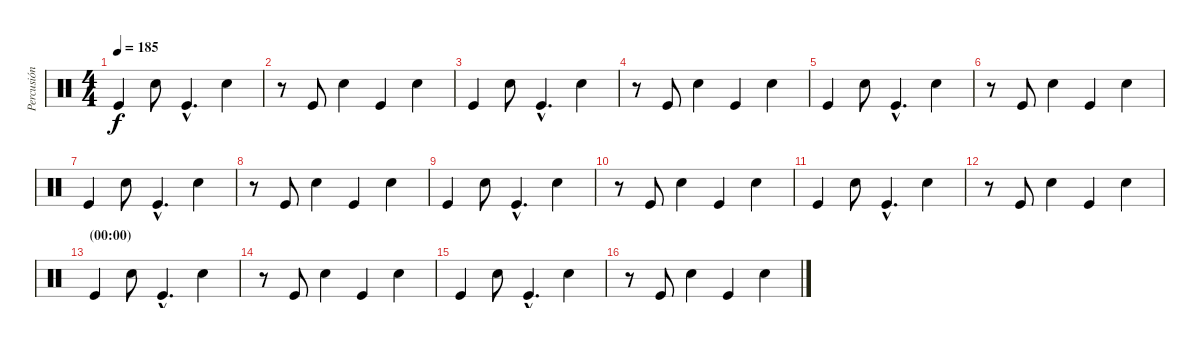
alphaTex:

\track ("Percusión" "Percusión") {instrument percussion}
\staff {score}
\articulation defaults
\ts (4 4)
\tempo 185
\clef neutral
\ks c "Kick (hit)".4{dy f} "Electric Snare (hit)".8 "Kick (hit)"{hac}.4{d} "Electric Snare (hit)".4
|
r.8 "Kick (hit)".8 "Electric Snare (hit)".4 "Kick (hit)".4 "Electric Snare (hit)".4 |
"Kick (hit)".4 "Electric Snare (hit)".8 "Kick (hit)"{hac}.4{d} "Electric Snare (hit)".4 |
r.8 "Kick (hit)".8 "Electric Snare (hit)".4 "Kick (hit)".4 "Electric Snare (hit)".4 |
"Kick (hit)".4 "Electric Snare (hit)".8 "Kick (hit)"{hac}.4{d} "Electric Snare (hit)".4 |
r.8 "Kick (hit)".8 "Electric Snare (hit)".4 "Kick (hit)".4 "Electric Snare (hit)".4 |
"Kick (hit)".4 "Electric Snare (hit)".8 "Kick (hit)"{hac}.4{d} "Electric Snare (hit)".4 |
r.8 "Kick (hit)".8 "Electric Snare (hit)".4 "Kick (hit)".4 "Electric Snare (hit)".4 |
"Kick (hit)".4 "Electric Snare (hit)".8 "Kick (hit)"{hac}.4{d} "Electric Snare (hit)".4 |
r.8 "Kick (hit)".8 "Electric Snare (hit)".4 "Kick (hit)".4 "Electric Snare (hit)".4 |
"Kick (hit)".4 "Electric Snare (hit)".8 "Kick (hit)"{hac}.4{d} "Electric Snare (hit)".4 |
r.8 "Kick (hit)".8 "Electric Snare (hit)".4 "Kick (hit)".4 "Electric Snare (hit)".4 |
\section ("" "(00:00)")
"Kick (hit)".4 "Electric Snare (hit)".8 "Kick (hit)"{hac}.4{d} "Electric Snare (hit)".4 |
r.8 "Kick (hit)".8 "Electric Snare (hit)".4 "Kick (hit)".4 "Electric Snare (hit)".4 |
"Kick (hit)".4 "Electric Snare (hit)".8 "Kick (hit)"{hac}.4{d} "Electric Snare (hit)".4 |
r.8 "Kick (hit)".8 "Electric Snare (hit)".4 "Kick (hit)".4 "Electric Snare (hit)".4
